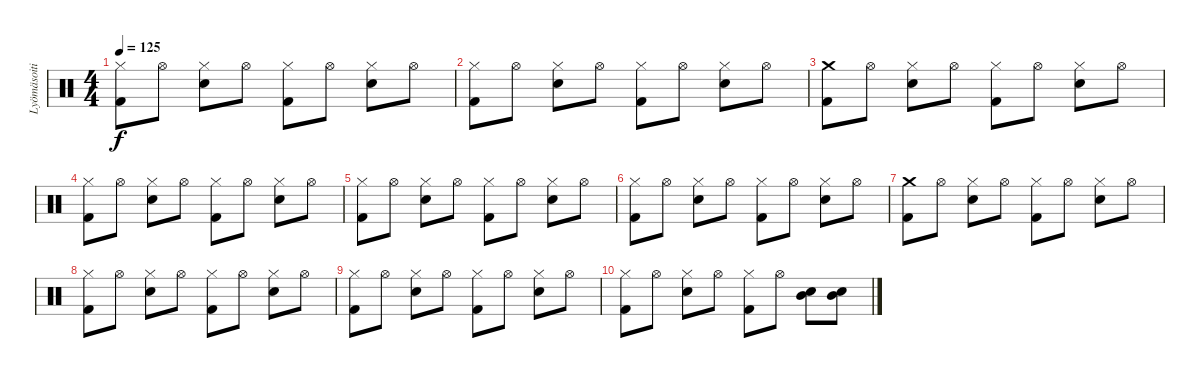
\track ("Lyömäsoitin" "Lyömäsoiti") {instrument percussion}
\staff {score}
\articulation defaults
\ts (4 4)
\tempo 125
\clef neutral
\ks c
("Kick (hit) 2" "Hi-Hat (closed)").8{dy f} "Hi-Hat (open)".8 ("Electric Snare (hit)" "Hi-Hat (closed)").8 "Hi-Hat (open)".8 ("Kick (hit) 2" "Hi-Hat (closed)").8 "Hi-Hat (open)".8 ("Electric Snare (hit)" "Hi-Hat (closed)").8 "Hi-Hat (open)".8 |
("Kick (hit) 2" "Hi-Hat (closed)").8 "Hi-Hat (open)".8 ("Electric Snare (hit)" "Hi-Hat (closed)").8 "Hi-Hat (open)".8 ("Kick (hit) 2" "Hi-Hat (closed)").8 "Hi-Hat (open)".8 ("Electric Snare (hit)" "Hi-Hat (closed)").8 "Hi-Hat (open)".8 |
("Kick (hit) 2" "Crash medium (hit)").8 "Hi-Hat (open)".8 ("Electric Snare (hit)" "Hi-Hat (closed)").8 "Hi-Hat (open)".8 ("Kick (hit) 2" "Hi-Hat (closed)").8 "Hi-Hat (open)".8 ("Electric Snare (hit)" "Hi-Hat (closed)").8 "Hi-Hat (open)".8 |
("Kick (hit) 2" "Hi-Hat (closed)").8 "Hi-Hat (open)".8 ("Electric Snare (hit)" "Hi-Hat (closed)").8 "Hi-Hat (open)".8 ("Kick (hit) 2" "Hi-Hat (closed)").8 "Hi-Hat (open)".8 ("Electric Snare (hit)" "Hi-Hat (closed)").8 "Hi-Hat (open)".8 |
("Kick (hit) 2" "Hi-Hat (closed)").8 "Hi-Hat (open)".8 ("Electric Snare (hit)" "Hi-Hat (closed)").8 "Hi-Hat (open)".8 ("Kick (hit) 2" "Hi-Hat (closed)").8 "Hi-Hat (open)".8 ("Electric Snare (hit)" "Hi-Hat (closed)").8 "Hi-Hat (open)".8 |
("Kick (hit) 2" "Hi-Hat (closed)").8 "Hi-Hat (open)".8 ("Electric Snare (hit)" "Hi-Hat (closed)").8 "Hi-Hat (open)".8 ("Kick (hit) 2" "Hi-Hat (closed)").8 "Hi-Hat (open)".8 ("Electric Snare (hit)" "Hi-Hat (closed)").8 "Hi-Hat (open)".8 |
("Kick (hit) 2" "Crash medium (hit)").8 "Hi-Hat (open)".8 ("Electric Snare (hit)" "Hi-Hat (closed)").8 "Hi-Hat (open)".8 ("Kick (hit) 2" "Hi-Hat (closed)").8 "Hi-Hat (open)".8 ("Electric Snare (hit)" "Hi-Hat (closed)").8 "Hi-Hat (open)".8 |
("Kick (hit) 2" "Hi-Hat (closed)").8 "Hi-Hat (open)".8 ("Electric Snare (hit)" "Hi-Hat (closed)").8 "Hi-Hat (open)".8 ("Kick (hit) 2" "Hi-Hat (closed)").8 "Hi-Hat (open)".8 ("Electric Snare (hit)" "Hi-Hat (closed)").8 "Hi-Hat (open)".8 |
("Kick (hit) 2" "Hi-Hat (closed)").8 "Hi-Hat (open)".8 ("Electric Snare (hit)" "Hi-Hat (closed)").8 "Hi-Hat (open)".8 ("Kick (hit) 2" "Hi-Hat (closed)").8 "Hi-Hat (open)".8 ("Electric Snare (hit)" "Hi-Hat (closed)").8 "Hi-Hat (open)".8 |
("Kick (hit) 2" "Hi-Hat (closed)").8 "Hi-Hat (open)".8 ("Electric Snare (hit)" "Hi-Hat (closed)").8 "Hi-Hat (open)".8 ("Kick (hit) 2" "Hi-Hat (closed)").8 "Hi-Hat (open)".8 ("Mid Tom (hit)" "Electric Snare (hit)").8 ("Mid Tom (hit)" "Electric Snare (hit)").8
